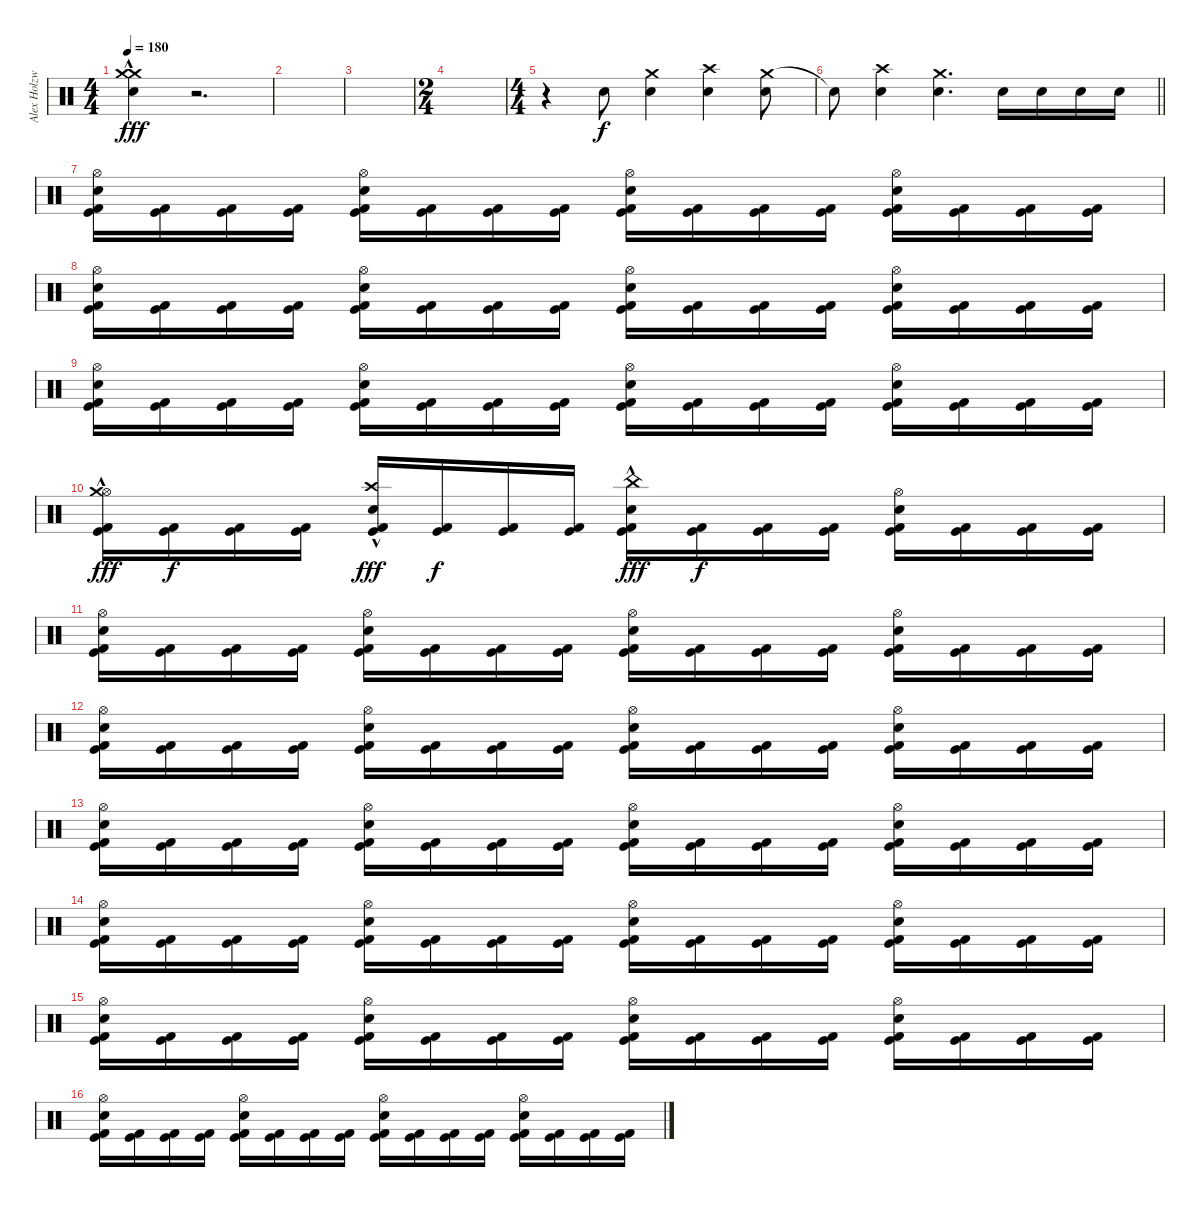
\track ("Alex Holzwarth" "Alex Holzw") {instrument percussion}
\staff {score}
\articulation defaults
\ts (4 4)
\tempo 180
\clef neutral
\ks c
("Crash medium (hit)"{hac} "Snare (hit) 2" "Crash medium (hit)"{hac}).4{dy fff volume 13} r.2{d volume 0} |
|
|
\ts (2 4)
|
\ts (4 4)
r.4 "Snare (hit) 2".8{dy f} ("Crash medium (hit)" "Snare (hit) 2").4 ("Crash high (hit)" "Snare (hit) 2").4 ("Crash medium (hit)" "Snare (hit) 2").8 |
\barLineRight lightlight "Snare (hit)"{t}.8
("Crash high (hit)" "Snare (hit) 2").4 ("Crash medium (hit)" "Snare (hit) 2").4{d} "Snare (hit) 2".16 "Snare (hit) 2".16 "Snare (hit) 2".16 "Snare (hit) 2".16 |
("Kick (hit) 2" "Kick (hit)" "Snare (hit) 2" "Hi-Hat (open)").16 ("Kick (hit) 2" "Kick (hit)").16 ("Kick (hit) 2" "Kick (hit)").16 ("Kick (hit) 2" "Kick (hit)").16 ("Kick (hit) 2" "Kick (hit)" "Hi-Hat (open)" "Snare (hit) 2").16 ("Kick (hit) 2" "Kick (hit)").16 ("Kick (hit) 2" "Kick (hit)").16 ("Kick (hit) 2" "Kick (hit)").16 ("Kick (hit) 2" "Kick (hit)" "Hi-Hat (open)" "Snare (hit) 2").16 ("Kick (hit) 2" "Kick (hit)").16 ("Kick (hit) 2" "Kick (hit)").16 ("Kick (hit) 2" "Kick (hit)").16 ("Kick (hit) 2" "Kick (hit)" "Hi-Hat (open)" "Snare (hit) 2").16 ("Kick (hit) 2" "Kick (hit)").16 ("Kick (hit) 2" "Kick (hit)").16 ("Kick (hit) 2" "Kick (hit)").16 |
("Kick (hit) 2" "Kick (hit)" "Snare (hit) 2" "Hi-Hat (open)").16 ("Kick (hit) 2" "Kick (hit)").16 ("Kick (hit) 2" "Kick (hit)").16 ("Kick (hit) 2" "Kick (hit)").16 ("Kick (hit) 2" "Kick (hit)" "Hi-Hat (open)" "Snare (hit) 2").16 ("Kick (hit) 2" "Kick (hit)").16 ("Kick (hit) 2" "Kick (hit)").16 ("Kick (hit) 2" "Kick (hit)").16 ("Kick (hit) 2" "Kick (hit)" "Hi-Hat (open)" "Snare (hit) 2").16 ("Kick (hit) 2" "Kick (hit)").16 ("Kick (hit) 2" "Kick (hit)").16 ("Kick (hit) 2" "Kick (hit)").16 ("Kick (hit) 2" "Kick (hit)" "Hi-Hat (open)" "Snare (hit) 2").16 ("Kick (hit) 2" "Kick (hit)").16 ("Kick (hit) 2" "Kick (hit)").16 ("Kick (hit) 2" "Kick (hit)").16 |
("Kick (hit) 2" "Kick (hit)" "Snare (hit) 2" "Hi-Hat (open)").16 ("Kick (hit) 2" "Kick (hit)").16 ("Kick (hit) 2" "Kick (hit)").16 ("Kick (hit) 2" "Kick (hit)").16 ("Kick (hit) 2" "Kick (hit)" "Hi-Hat (open)" "Snare (hit) 2").16 ("Kick (hit) 2" "Kick (hit)").16 ("Kick (hit) 2" "Kick (hit)").16 ("Kick (hit) 2" "Kick (hit)").16 ("Kick (hit) 2" "Kick (hit)" "Hi-Hat (open)" "Snare (hit) 2").16 ("Kick (hit) 2" "Kick (hit)").16 ("Kick (hit) 2" "Kick (hit)").16 ("Kick (hit) 2" "Kick (hit)").16 ("Kick (hit) 2" "Kick (hit)" "Hi-Hat (open)" "Snare (hit) 2").16 ("Kick (hit) 2" "Kick (hit)").16 ("Kick (hit) 2" "Kick (hit)").16 ("Kick (hit) 2" "Kick (hit)").16 |
("Kick (hit) 2" "Kick (hit)" "Hi-Hat (open)" "Crash medium (hit)"{hac}).16{dy fff} ("Kick (hit) 2" "Kick (hit)").16{dy f} ("Kick (hit) 2" "Kick (hit)").16 ("Kick (hit) 2" "Kick (hit)").16 ("Kick (hit) 2" "Kick (hit)" "Snare (hit) 2" "Crash high (hit)"{hac}).16{dy fff} ("Kick (hit) 2" "Kick (hit)").16{dy f} ("Kick (hit) 2" "Kick (hit)").16 ("Kick (hit) 2" "Kick (hit)").16 ("Kick (hit) 2" "Kick (hit)" "Snare (hit) 2" "China (hit)"{hac}).16{dy fff} ("Kick (hit) 2" "Kick (hit)").16{dy f} ("Kick (hit) 2" "Kick (hit)").16 ("Kick (hit) 2" "Kick (hit)").16 ("Kick (hit) 2" "Kick (hit)" "Hi-Hat (open)" "Snare (hit) 2").16 ("Kick (hit) 2" "Kick (hit)").16 ("Kick (hit) 2" "Kick (hit)").16 ("Kick (hit) 2" "Kick (hit)").16 |
("Kick (hit) 2" "Kick (hit)" "Snare (hit) 2" "Hi-Hat (open)").16 ("Kick (hit) 2" "Kick (hit)").16 ("Kick (hit) 2" "Kick (hit)").16 ("Kick (hit) 2" "Kick (hit)").16 ("Kick (hit) 2" "Kick (hit)" "Hi-Hat (open)" "Snare (hit) 2").16 ("Kick (hit) 2" "Kick (hit)").16 ("Kick (hit) 2" "Kick (hit)").16 ("Kick (hit) 2" "Kick (hit)").16 ("Kick (hit) 2" "Kick (hit)" "Hi-Hat (open)" "Snare (hit) 2").16 ("Kick (hit) 2" "Kick (hit)").16 ("Kick (hit) 2" "Kick (hit)").16 ("Kick (hit) 2" "Kick (hit)").16 ("Kick (hit) 2" "Kick (hit)" "Hi-Hat (open)" "Snare (hit) 2").16 ("Kick (hit) 2" "Kick (hit)").16 ("Kick (hit) 2" "Kick (hit)").16 ("Kick (hit) 2" "Kick (hit)").16 |
("Kick (hit) 2" "Kick (hit)" "Snare (hit) 2" "Hi-Hat (open)").16 ("Kick (hit) 2" "Kick (hit)").16 ("Kick (hit) 2" "Kick (hit)").16 ("Kick (hit) 2" "Kick (hit)").16 ("Kick (hit) 2" "Kick (hit)" "Hi-Hat (open)" "Snare (hit) 2").16 ("Kick (hit) 2" "Kick (hit)").16 ("Kick (hit) 2" "Kick (hit)").16 ("Kick (hit) 2" "Kick (hit)").16 ("Kick (hit) 2" "Kick (hit)" "Hi-Hat (open)" "Snare (hit) 2").16 ("Kick (hit) 2" "Kick (hit)").16 ("Kick (hit) 2" "Kick (hit)").16 ("Kick (hit) 2" "Kick (hit)").16 ("Kick (hit) 2" "Kick (hit)" "Hi-Hat (open)" "Snare (hit) 2").16 ("Kick (hit) 2" "Kick (hit)").16 ("Kick (hit) 2" "Kick (hit)").16 ("Kick (hit) 2" "Kick (hit)").16 |
("Kick (hit) 2" "Kick (hit)" "Snare (hit) 2" "Hi-Hat (open)").16 ("Kick (hit) 2" "Kick (hit)").16 ("Kick (hit) 2" "Kick (hit)").16 ("Kick (hit) 2" "Kick (hit)").16 ("Kick (hit) 2" "Kick (hit)" "Hi-Hat (open)" "Snare (hit) 2").16 ("Kick (hit) 2" "Kick (hit)").16 ("Kick (hit) 2" "Kick (hit)").16 ("Kick (hit) 2" "Kick (hit)").16 ("Kick (hit) 2" "Kick (hit)" "Hi-Hat (open)" "Snare (hit) 2").16 ("Kick (hit) 2" "Kick (hit)").16 ("Kick (hit) 2" "Kick (hit)").16 ("Kick (hit) 2" "Kick (hit)").16 ("Kick (hit) 2" "Kick (hit)" "Hi-Hat (open)" "Snare (hit) 2").16 ("Kick (hit) 2" "Kick (hit)").16 ("Kick (hit) 2" "Kick (hit)").16 ("Kick (hit) 2" "Kick (hit)").16 |
("Kick (hit) 2" "Kick (hit)" "Snare (hit) 2" "Hi-Hat (open)").16 ("Kick (hit) 2" "Kick (hit)").16 ("Kick (hit) 2" "Kick (hit)").16 ("Kick (hit) 2" "Kick (hit)").16 ("Kick (hit) 2" "Kick (hit)" "Hi-Hat (open)" "Snare (hit) 2").16 ("Kick (hit) 2" "Kick (hit)").16 ("Kick (hit) 2" "Kick (hit)").16 ("Kick (hit) 2" "Kick (hit)").16 ("Kick (hit) 2" "Kick (hit)" "Hi-Hat (open)" "Snare (hit) 2").16 ("Kick (hit) 2" "Kick (hit)").16 ("Kick (hit) 2" "Kick (hit)").16 ("Kick (hit) 2" "Kick (hit)").16 ("Kick (hit) 2" "Kick (hit)" "Hi-Hat (open)" "Snare (hit) 2").16 ("Kick (hit) 2" "Kick (hit)").16 ("Kick (hit) 2" "Kick (hit)").16 ("Kick (hit) 2" "Kick (hit)").16 |
("Kick (hit) 2" "Kick (hit)" "Snare (hit) 2" "Hi-Hat (open)").16 ("Kick (hit) 2" "Kick (hit)").16 ("Kick (hit) 2" "Kick (hit)").16 ("Kick (hit) 2" "Kick (hit)").16 ("Kick (hit) 2" "Kick (hit)" "Hi-Hat (open)" "Snare (hit) 2").16 ("Kick (hit) 2" "Kick (hit)").16 ("Kick (hit) 2" "Kick (hit)").16 ("Kick (hit) 2" "Kick (hit)").16 ("Kick (hit) 2" "Kick (hit)" "Hi-Hat (open)" "Snare (hit) 2").16 ("Kick (hit) 2" "Kick (hit)").16 ("Kick (hit) 2" "Kick (hit)").16 ("Kick (hit) 2" "Kick (hit)").16 ("Kick (hit) 2" "Kick (hit)" "Hi-Hat (open)" "Snare (hit) 2").16 ("Kick (hit) 2" "Kick (hit)").16 ("Kick (hit) 2" "Kick (hit)").16 ("Kick (hit) 2" "Kick (hit)").16 |
("Kick (hit) 2" "Kick (hit)" "Snare (hit) 2" "Hi-Hat (open)").16 ("Kick (hit) 2" "Kick (hit)").16 ("Kick (hit) 2" "Kick (hit)").16 ("Kick (hit) 2" "Kick (hit)").16 ("Kick (hit) 2" "Kick (hit)" "Hi-Hat (open)" "Snare (hit) 2").16 ("Kick (hit) 2" "Kick (hit)").16 ("Kick (hit) 2" "Kick (hit)").16 ("Kick (hit) 2" "Kick (hit)").16 ("Kick (hit) 2" "Kick (hit)" "Hi-Hat (open)" "Snare (hit) 2").16 ("Kick (hit) 2" "Kick (hit)").16 ("Kick (hit) 2" "Kick (hit)").16 ("Kick (hit) 2" "Kick (hit)").16 ("Kick (hit) 2" "Kick (hit)" "Hi-Hat (open)" "Snare (hit) 2").16 ("Kick (hit) 2" "Kick (hit)").16 ("Kick (hit) 2" "Kick (hit)").16 ("Kick (hit) 2" "Kick (hit)").16
